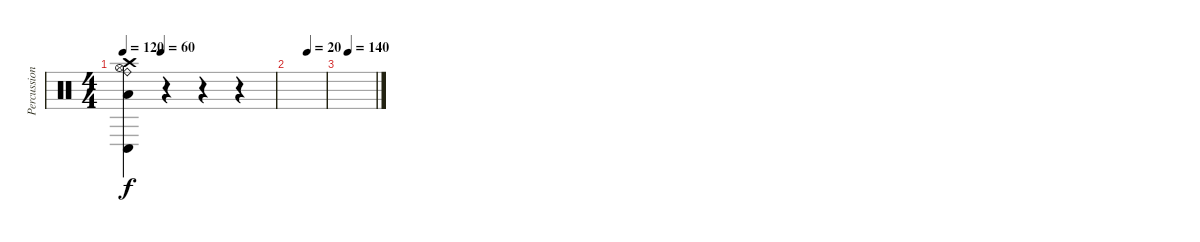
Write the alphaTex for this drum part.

\track ("Percussion" "Percussion") {instrument percussion}
\staff {score}
\articulation defaults
\ts (4 4)
\tempo 120
\tempo (60 0.25)
\clef neutral
\ks c
("Low Tom (hit)" "Conga low (hit)" "Ride (bell)" "Hi-Hat (open)" "Crash high (hit)").4{dy f} r.4 r.4 r.4 |
\tempo (20 0.5)
|
\tempo (140 0.25)
